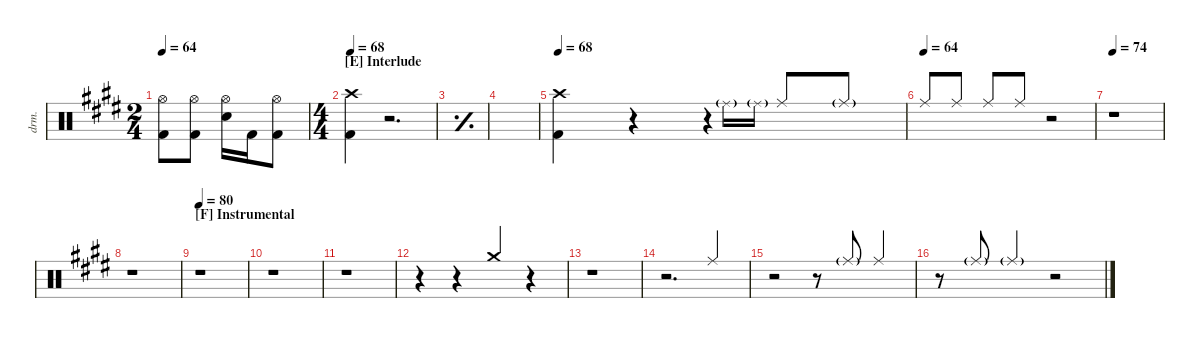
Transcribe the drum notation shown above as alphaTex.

\defaultSystemsLayout 4
\hideDynamics
\bracketExtendMode groupsimilarinstruments
\otherSystemsTrackNameOrientation horizontal
\chordDiagramsInScore
\track ("Drumkit" "drm.") {instrument percussion}
\staff {score}
\articulation defaults
\ts (2 4)
\tempo 64
\clef neutral
\ks e
("Hi-Hat (open)"{acc forcenatural} "Kick (hit) 2"{acc forcenatural}).8{dy mf} ("Hi-Hat (open)"{acc forcenatural} "Kick (hit) 2"{acc forcenatural}).8 ("Hi-Hat (open)"{acc forcenatural} "Snare (hit) 2"{acc forcenatural}).16 "Kick (hit) 2"{acc forcenatural}.16 ("Kick (hit) 2"{acc forcenatural} "Hi-Hat (open)"{acc forcenatural}).8 |
\ts (4 4)
\beaming (8 2 2 2 2)
\section ("E" "Interlude")
\tempo 68
("Crash high (hit)"{acc forcenatural} "Kick (hit) 2"{acc forcenatural}).4 r.2{d} |
\simile simple
|
|
\tempo 68
\simile none
("Crash high (hit)"{acc forcenatural} "Kick (hit) 2"{acc forcenatural}).4 r.4 r.4 "Ride (middle)"{g acc forcenatural}.16{gr onbeat beam Down} "Ride (middle)"{g acc forcenatural}.16{gr onbeat beam Down} "Ride (middle)"{acc forcenatural}.8{beam Up} "Ride (middle)"{g acc forcenatural}.8{beam Up} |
\tempo (64)
"Ride (middle)"{acc forcenatural}.8{beam Up} "Ride (middle)"{acc forcenatural}.8{beam Up} "Ride (middle)"{acc forcenatural}.8{beam Up} "Ride (middle)"{acc forcenatural}.8{beam Up} r.2 |
\tempo 74
r.1 |
r.1 |
\section ("F" "Instrumental")
\tempo 80
r.1 |
r.1 |
r.1 |
r.4 r.4 "Crash medium (hit)"{acc forcenatural}.4{beam Up} r.4 |
r.1 |
r.2{d} "Ride (middle)"{acc forcenatural}.4{beam Up} |
r.2{beam Up} r.8{beam Up} "Ride (middle)"{g acc forcenatural}.8{beam Up} "Ride (middle)"{acc forcenatural}.4{beam Up} |
r.8{beam Up} "Ride (middle)"{g acc forcenatural}.8{beam Up} "Ride (middle)"{g acc forcenatural}.4{beam Up} r.2
